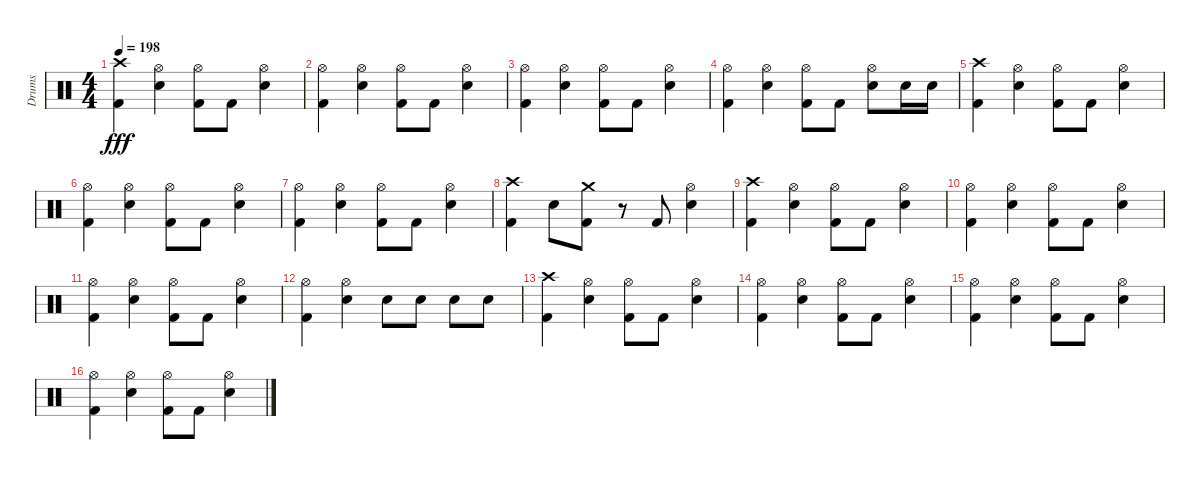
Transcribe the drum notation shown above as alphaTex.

\track ("Drums" "Drums") {instrument percussion}
\staff {score}
\articulation defaults
\ts (4 4)
\tempo 198
\clef neutral
\ks c
("Crash high (hit)" "Kick (hit) 2").4{dy fff} ("Hi-Hat (open)" "Electric Snare (hit)").4 ("Hi-Hat (open)" "Kick (hit) 2").8 "Kick (hit) 2".8 ("Hi-Hat (open)" "Electric Snare (hit)").4 |
("Hi-Hat (open)" "Kick (hit) 2").4 ("Hi-Hat (open)" "Electric Snare (hit)").4 ("Hi-Hat (open)" "Kick (hit) 2").8 "Kick (hit) 2".8 ("Hi-Hat (open)" "Electric Snare (hit)").4 |
("Hi-Hat (open)" "Kick (hit) 2").4 ("Hi-Hat (open)" "Electric Snare (hit)").4 ("Hi-Hat (open)" "Kick (hit) 2").8 "Kick (hit) 2".8 ("Hi-Hat (open)" "Electric Snare (hit)").4 |
("Hi-Hat (open)" "Kick (hit) 2").4 ("Hi-Hat (open)" "Electric Snare (hit)").4 ("Hi-Hat (open)" "Kick (hit) 2").8 "Kick (hit) 2".8 ("Hi-Hat (open)" "Electric Snare (hit)").8 "Electric Snare (hit)".16 "Electric Snare (hit)".16 |
("Crash high (hit)" "Kick (hit) 2").4 ("Hi-Hat (open)" "Electric Snare (hit)").4 ("Hi-Hat (open)" "Kick (hit) 2").8 "Kick (hit) 2".8 ("Hi-Hat (open)" "Electric Snare (hit)").4 |
("Hi-Hat (open)" "Kick (hit) 2").4 ("Hi-Hat (open)" "Electric Snare (hit)").4 ("Hi-Hat (open)" "Kick (hit) 2").8 "Kick (hit) 2".8 ("Hi-Hat (open)" "Electric Snare (hit)").4 |
("Hi-Hat (open)" "Kick (hit) 2").4 ("Hi-Hat (open)" "Electric Snare (hit)").4 ("Hi-Hat (open)" "Kick (hit) 2").8 "Kick (hit) 2".8 ("Hi-Hat (open)" "Electric Snare (hit)").4 |
("Crash high (hit)" "Kick (hit) 2").4 "Electric Snare (hit)".8 ("Crash medium (hit)" "Kick (hit) 2").8 r.8 "Kick (hit) 2".8 ("Hi-Hat (open)" "Electric Snare (hit)").4 |
("Crash high (hit)" "Kick (hit) 2").4 ("Hi-Hat (open)" "Electric Snare (hit)").4 ("Hi-Hat (open)" "Kick (hit) 2").8 "Kick (hit) 2".8 ("Hi-Hat (open)" "Electric Snare (hit)").4 |
("Hi-Hat (open)" "Kick (hit) 2").4 ("Hi-Hat (open)" "Electric Snare (hit)").4 ("Hi-Hat (open)" "Kick (hit) 2").8 "Kick (hit) 2".8 ("Hi-Hat (open)" "Electric Snare (hit)").4 |
("Hi-Hat (open)" "Kick (hit) 2").4 ("Hi-Hat (open)" "Electric Snare (hit)").4 ("Hi-Hat (open)" "Kick (hit) 2").8 "Kick (hit) 2".8 ("Hi-Hat (open)" "Electric Snare (hit)").4 |
("Hi-Hat (open)" "Kick (hit) 2").4 ("Hi-Hat (open)" "Electric Snare (hit)").4 "Electric Snare (hit)".8 "Electric Snare (hit)".8 "Electric Snare (hit)".8 "Electric Snare (hit)".8 |
("Crash high (hit)" "Kick (hit) 2").4 ("Hi-Hat (open)" "Electric Snare (hit)").4 ("Hi-Hat (open)" "Kick (hit) 2").8 "Kick (hit) 2".8 ("Hi-Hat (open)" "Electric Snare (hit)").4 |
("Hi-Hat (open)" "Kick (hit) 2").4 ("Hi-Hat (open)" "Electric Snare (hit)").4 ("Hi-Hat (open)" "Kick (hit) 2").8 "Kick (hit) 2".8 ("Hi-Hat (open)" "Electric Snare (hit)").4 |
("Hi-Hat (open)" "Kick (hit) 2").4 ("Hi-Hat (open)" "Electric Snare (hit)").4 ("Hi-Hat (open)" "Kick (hit) 2").8 "Kick (hit) 2".8 ("Hi-Hat (open)" "Electric Snare (hit)").4 |
("Hi-Hat (open)" "Kick (hit) 2").4 ("Hi-Hat (open)" "Electric Snare (hit)").4 ("Hi-Hat (open)" "Kick (hit) 2").8 "Kick (hit) 2".8 ("Hi-Hat (open)" "Electric Snare (hit)").4
